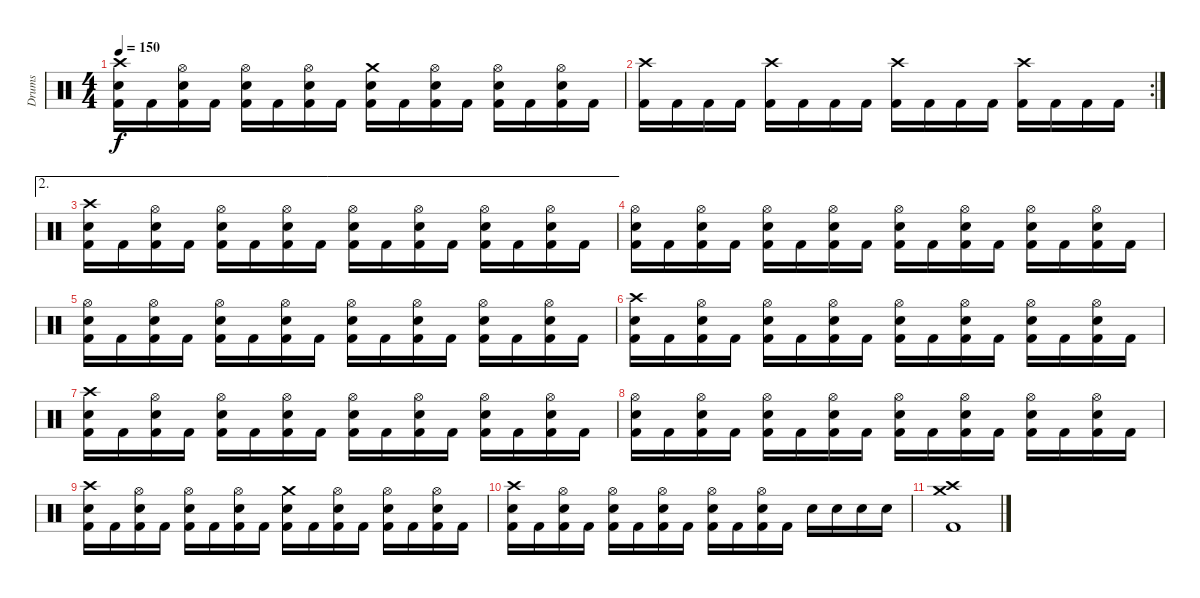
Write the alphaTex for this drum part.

\track ("Drums" "Drums") {instrument percussion}
\staff {score}
\articulation defaults
\ts (4 4)
\tempo 150
\clef neutral
\ks c
("Crash high (hit)" "Electric Snare (hit)" "Kick (hit) 2").16{dy f} "Kick (hit) 2".16 ("Hi-Hat (open)" "Electric Snare (hit)" "Kick (hit) 2").16 "Kick (hit) 2".16 ("Hi-Hat (open)" "Electric Snare (hit)" "Kick (hit) 2").16 "Kick (hit) 2".16 ("Hi-Hat (open)" "Electric Snare (hit)" "Kick (hit) 2").16 "Kick (hit) 2".16 ("Crash medium (hit)" "Electric Snare (hit)" "Kick (hit) 2").16 "Kick (hit) 2".16 ("Hi-Hat (open)" "Electric Snare (hit)" "Kick (hit) 2").16 "Kick (hit) 2".16 ("Hi-Hat (open)" "Electric Snare (hit)" "Kick (hit) 2").16 "Kick (hit) 2".16 ("Hi-Hat (open)" "Electric Snare (hit)" "Kick (hit) 2").16 "Kick (hit) 2".16 |
\rc 2
("Crash high (hit)" "Kick (hit) 2").16 "Kick (hit) 2".16 "Kick (hit) 2".16 "Kick (hit) 2".16 ("Crash high (hit)" "Kick (hit) 2").16 "Kick (hit) 2".16 "Kick (hit) 2".16 "Kick (hit) 2".16 ("Crash high (hit)" "Kick (hit) 2").16 "Kick (hit) 2".16 "Kick (hit) 2".16 "Kick (hit) 2".16 ("Crash high (hit)" "Kick (hit) 2").16 "Kick (hit) 2".16 "Kick (hit) 2".16 "Kick (hit) 2".16 |
\ae 2
("Crash high (hit)" "Electric Snare (hit)" "Kick (hit) 2").16 "Kick (hit) 2".16 ("Hi-Hat (open)" "Electric Snare (hit)" "Kick (hit) 2").16 "Kick (hit) 2".16 ("Hi-Hat (open)" "Electric Snare (hit)" "Kick (hit) 2").16 "Kick (hit) 2".16 ("Hi-Hat (open)" "Electric Snare (hit)" "Kick (hit) 2").16 "Kick (hit) 2".16 ("Hi-Hat (open)" "Electric Snare (hit)" "Kick (hit) 2").16 "Kick (hit) 2".16 ("Hi-Hat (open)" "Electric Snare (hit)" "Kick (hit) 2").16 "Kick (hit) 2".16 ("Hi-Hat (open)" "Electric Snare (hit)" "Kick (hit) 2").16 "Kick (hit) 2".16 ("Hi-Hat (open)" "Electric Snare (hit)" "Kick (hit) 2").16 "Kick (hit) 2".16 |
("Hi-Hat (open)" "Electric Snare (hit)" "Kick (hit) 2").16 "Kick (hit) 2".16 ("Hi-Hat (open)" "Electric Snare (hit)" "Kick (hit) 2").16 "Kick (hit) 2".16 ("Hi-Hat (open)" "Electric Snare (hit)" "Kick (hit) 2").16 "Kick (hit) 2".16 ("Hi-Hat (open)" "Electric Snare (hit)" "Kick (hit) 2").16 "Kick (hit) 2".16 ("Hi-Hat (open)" "Electric Snare (hit)" "Kick (hit) 2").16 "Kick (hit) 2".16 ("Hi-Hat (open)" "Electric Snare (hit)" "Kick (hit) 2").16 "Kick (hit) 2".16 ("Hi-Hat (open)" "Electric Snare (hit)" "Kick (hit) 2").16 "Kick (hit) 2".16 ("Hi-Hat (open)" "Electric Snare (hit)" "Kick (hit) 2").16 "Kick (hit) 2".16 |
("Hi-Hat (open)" "Electric Snare (hit)" "Kick (hit) 2").16 "Kick (hit) 2".16 ("Hi-Hat (open)" "Electric Snare (hit)" "Kick (hit) 2").16 "Kick (hit) 2".16 ("Hi-Hat (open)" "Electric Snare (hit)" "Kick (hit) 2").16 "Kick (hit) 2".16 ("Hi-Hat (open)" "Electric Snare (hit)" "Kick (hit) 2").16 "Kick (hit) 2".16 ("Hi-Hat (open)" "Electric Snare (hit)" "Kick (hit) 2").16 "Kick (hit) 2".16 ("Hi-Hat (open)" "Electric Snare (hit)" "Kick (hit) 2").16 "Kick (hit) 2".16 ("Hi-Hat (open)" "Electric Snare (hit)" "Kick (hit) 2").16 "Kick (hit) 2".16 ("Hi-Hat (open)" "Electric Snare (hit)" "Kick (hit) 2").16 "Kick (hit) 2".16 |
("Crash high (hit)" "Electric Snare (hit)" "Kick (hit) 2").16 "Kick (hit) 2".16 ("Hi-Hat (open)" "Electric Snare (hit)" "Kick (hit) 2").16 "Kick (hit) 2".16 ("Hi-Hat (open)" "Electric Snare (hit)" "Kick (hit) 2").16 "Kick (hit) 2".16 ("Hi-Hat (open)" "Electric Snare (hit)" "Kick (hit) 2").16 "Kick (hit) 2".16 ("Hi-Hat (open)" "Electric Snare (hit)" "Kick (hit) 2").16 "Kick (hit) 2".16 ("Hi-Hat (open)" "Electric Snare (hit)" "Kick (hit) 2").16 "Kick (hit) 2".16 ("Hi-Hat (open)" "Electric Snare (hit)" "Kick (hit) 2").16 "Kick (hit) 2".16 ("Hi-Hat (open)" "Electric Snare (hit)" "Kick (hit) 2").16 "Kick (hit) 2".16 |
("Crash high (hit)" "Electric Snare (hit)" "Kick (hit) 2").16 "Kick (hit) 2".16 ("Hi-Hat (open)" "Electric Snare (hit)" "Kick (hit) 2").16 "Kick (hit) 2".16 ("Hi-Hat (open)" "Electric Snare (hit)" "Kick (hit) 2").16 "Kick (hit) 2".16 ("Hi-Hat (open)" "Electric Snare (hit)" "Kick (hit) 2").16 "Kick (hit) 2".16 ("Hi-Hat (open)" "Electric Snare (hit)" "Kick (hit) 2").16 "Kick (hit) 2".16 ("Hi-Hat (open)" "Electric Snare (hit)" "Kick (hit) 2").16 "Kick (hit) 2".16 ("Hi-Hat (open)" "Electric Snare (hit)" "Kick (hit) 2").16 "Kick (hit) 2".16 ("Hi-Hat (open)" "Electric Snare (hit)" "Kick (hit) 2").16 "Kick (hit) 2".16 |
("Hi-Hat (open)" "Electric Snare (hit)" "Kick (hit) 2").16 "Kick (hit) 2".16 ("Hi-Hat (open)" "Electric Snare (hit)" "Kick (hit) 2").16 "Kick (hit) 2".16 ("Hi-Hat (open)" "Electric Snare (hit)" "Kick (hit) 2").16 "Kick (hit) 2".16 ("Hi-Hat (open)" "Electric Snare (hit)" "Kick (hit) 2").16 "Kick (hit) 2".16 ("Hi-Hat (open)" "Electric Snare (hit)" "Kick (hit) 2").16 "Kick (hit) 2".16 ("Hi-Hat (open)" "Electric Snare (hit)" "Kick (hit) 2").16 "Kick (hit) 2".16 ("Hi-Hat (open)" "Electric Snare (hit)" "Kick (hit) 2").16 "Kick (hit) 2".16 ("Hi-Hat (open)" "Electric Snare (hit)" "Kick (hit) 2").16 "Kick (hit) 2".16 |
("Crash high (hit)" "Electric Snare (hit)" "Kick (hit) 2").16 "Kick (hit) 2".16 ("Hi-Hat (open)" "Electric Snare (hit)" "Kick (hit) 2").16 "Kick (hit) 2".16 ("Hi-Hat (open)" "Electric Snare (hit)" "Kick (hit) 2").16 "Kick (hit) 2".16 ("Hi-Hat (open)" "Electric Snare (hit)" "Kick (hit) 2").16 "Kick (hit) 2".16 ("Crash medium (hit)" "Electric Snare (hit)" "Kick (hit) 2").16 "Kick (hit) 2".16 ("Hi-Hat (open)" "Electric Snare (hit)" "Kick (hit) 2").16 "Kick (hit) 2".16 ("Hi-Hat (open)" "Electric Snare (hit)" "Kick (hit) 2").16 "Kick (hit) 2".16 ("Hi-Hat (open)" "Electric Snare (hit)" "Kick (hit) 2").16 "Kick (hit) 2".16 |
("Crash high (hit)" "Electric Snare (hit)" "Kick (hit) 2").16 "Kick (hit) 2".16 ("Hi-Hat (open)" "Electric Snare (hit)" "Kick (hit) 2").16 "Kick (hit) 2".16 ("Hi-Hat (open)" "Electric Snare (hit)" "Kick (hit) 2").16 "Kick (hit) 2".16 ("Hi-Hat (open)" "Electric Snare (hit)" "Kick (hit) 2").16 "Kick (hit) 2".16 ("Hi-Hat (open)" "Electric Snare (hit)" "Kick (hit) 2").16 "Kick (hit) 2".16 ("Hi-Hat (open)" "Electric Snare (hit)" "Kick (hit) 2").16 "Kick (hit) 2".16 "Electric Snare (hit)".16 "Electric Snare (hit)".16 "Electric Snare (hit)".16 "Electric Snare (hit)".16 |
("Crash high (hit)" "Crash medium (hit)" "Kick (hit) 2").1
